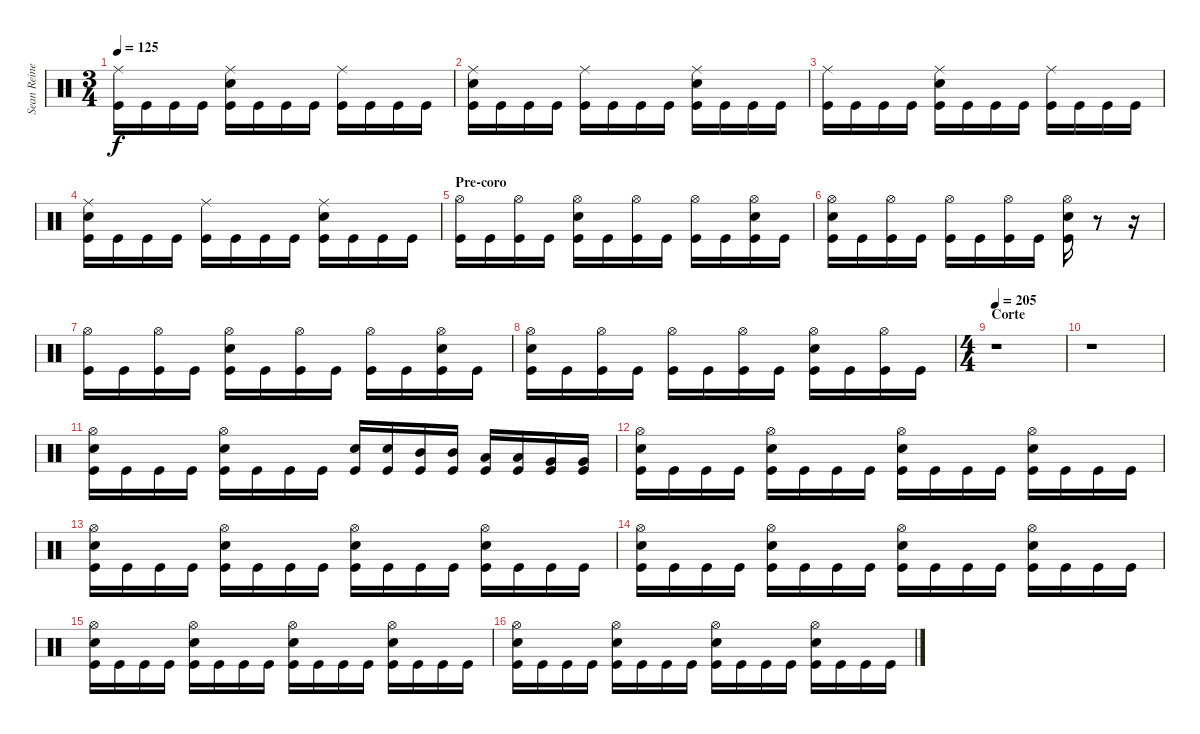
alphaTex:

\track ("Sean Reinert" "Sean Reine") {instrument percussion}
\staff {score}
\articulation defaults
\ts (3 4)
\tempo 125
\clef neutral
\ks c
("Ride (middle)" "Kick (hit)").16{dy f} "Kick (hit)".16 "Kick (hit)".16 "Kick (hit)".16 ("Ride (middle)" "Snare (hit) 2" "Kick (hit)").16 "Kick (hit)".16 "Kick (hit)".16 "Kick (hit)".16 ("Ride (middle)" "Kick (hit)").16 "Kick (hit)".16 "Kick (hit)".16 "Kick (hit)".16 |
("Ride (middle)" "Snare (hit) 2" "Kick (hit)").16 "Kick (hit)".16 "Kick (hit)".16 "Kick (hit)".16 ("Ride (middle)" "Kick (hit)").16 "Kick (hit)".16 "Kick (hit)".16 "Kick (hit)".16 ("Ride (middle)" "Snare (hit) 2" "Kick (hit)").16 "Kick (hit)".16 "Kick (hit)".16 "Kick (hit)".16 |
("Ride (middle)" "Kick (hit)").16 "Kick (hit)".16 "Kick (hit)".16 "Kick (hit)".16 ("Ride (middle)" "Snare (hit) 2" "Kick (hit)").16 "Kick (hit)".16 "Kick (hit)".16 "Kick (hit)".16 ("Ride (middle)" "Kick (hit)").16 "Kick (hit)".16 "Kick (hit)".16 "Kick (hit)".16 |
("Ride (middle)" "Snare (hit) 2" "Kick (hit)").16 "Kick (hit)".16 "Kick (hit)".16 "Kick (hit)".16 ("Ride (middle)" "Kick (hit)").16 "Kick (hit)".16 "Kick (hit)".16 "Kick (hit)".16 ("Ride (middle)" "Snare (hit) 2" "Kick (hit)").16 "Kick (hit)".16 "Kick (hit)".16 "Kick (hit)".16 |
\section ("" "Pre-coro")
("Hi-Hat (open)" "Kick (hit)").16 "Kick (hit)".16 ("Hi-Hat (open)" "Kick (hit)").16 "Kick (hit)".16 ("Hi-Hat (open)" "Snare (hit) 2" "Kick (hit)").16 "Kick (hit)".16 ("Hi-Hat (open)" "Kick (hit)").16 "Kick (hit)".16 ("Hi-Hat (open)" "Kick (hit)").16 "Kick (hit)".16 ("Hi-Hat (open)" "Snare (hit) 2" "Kick (hit)").16 "Kick (hit)".16 |
("Hi-Hat (open)" "Snare (hit) 2" "Kick (hit)").16 "Kick (hit)".16 ("Hi-Hat (open)" "Kick (hit)").16 "Kick (hit)".16 ("Hi-Hat (open)" "Kick (hit)").16 "Kick (hit)".16 ("Hi-Hat (open)" "Kick (hit)").16 "Kick (hit)".16 ("Hi-Hat (open)" "Snare (hit) 2" "Kick (hit)").16 r.8 r.16 |
("Hi-Hat (open)" "Kick (hit)").16 "Kick (hit)".16 ("Hi-Hat (open)" "Kick (hit)").16 "Kick (hit)".16 ("Hi-Hat (open)" "Snare (hit) 2" "Kick (hit)").16 "Kick (hit)".16 ("Hi-Hat (open)" "Kick (hit)").16 "Kick (hit)".16 ("Hi-Hat (open)" "Kick (hit)").16 "Kick (hit)".16 ("Hi-Hat (open)" "Snare (hit) 2" "Kick (hit)").16 "Kick (hit)".16 |
("Hi-Hat (open)" "Snare (hit) 2" "Kick (hit)").16 "Kick (hit)".16 ("Hi-Hat (open)" "Kick (hit)").16 "Kick (hit)".16 ("Hi-Hat (open)" "Kick (hit)").16 "Kick (hit)".16 ("Hi-Hat (open)" "Kick (hit)").16 "Kick (hit)".16 ("Hi-Hat (open)" "Snare (hit) 2" "Kick (hit)").16 "Kick (hit)".16 ("Hi-Hat (open)" "Kick (hit)").16 "Kick (hit)".16 |
\ts (4 4)
\section ("" "Corte")
\tempo 205
r.1 |
r.1 |
("Hi-Hat (open)" "Snare (hit) 2" "Kick (hit)").16 "Kick (hit)".16 "Kick (hit)".16 "Kick (hit)".16 ("Hi-Hat (open)" "Snare (hit) 2" "Kick (hit)").16 "Kick (hit)".16 "Kick (hit)".16 "Kick (hit)".16 ("Snare (hit) 2" "Kick (hit)").16 ("Snare (hit) 2" "Kick (hit)").16 ("Mid Tom (hit)" "Kick (hit)").16 ("Mid Tom (hit)" "Kick (hit)").16 ("Low Tom (hit)" "Kick (hit)").16 ("Low Tom (hit)" "Kick (hit)").16 ("Very Low Tom (hit)" "Kick (hit)").16 ("Very Low Tom (hit)" "Kick (hit)").16 |
("Hi-Hat (open)" "Snare (hit) 2" "Kick (hit)").16 "Kick (hit)".16 "Kick (hit)".16 "Kick (hit)".16 ("Hi-Hat (open)" "Snare (hit) 2" "Kick (hit)").16 "Kick (hit)".16 "Kick (hit)".16 "Kick (hit)".16 ("Hi-Hat (open)" "Snare (hit) 2" "Kick (hit)").16 "Kick (hit)".16 "Kick (hit)".16 "Kick (hit)".16 ("Hi-Hat (open)" "Snare (hit) 2" "Kick (hit)").16 "Kick (hit)".16 "Kick (hit)".16 "Kick (hit)".16 |
("Hi-Hat (open)" "Snare (hit) 2" "Kick (hit)").16 "Kick (hit)".16 "Kick (hit)".16 "Kick (hit)".16 ("Hi-Hat (open)" "Snare (hit) 2" "Kick (hit)").16 "Kick (hit)".16 "Kick (hit)".16 "Kick (hit)".16 ("Hi-Hat (open)" "Snare (hit) 2" "Kick (hit)").16 "Kick (hit)".16 "Kick (hit)".16 "Kick (hit)".16 ("Hi-Hat (open)" "Snare (hit) 2" "Kick (hit)").16 "Kick (hit)".16 "Kick (hit)".16 "Kick (hit)".16 |
("Hi-Hat (open)" "Snare (hit) 2" "Kick (hit)").16 "Kick (hit)".16 "Kick (hit)".16 "Kick (hit)".16 ("Hi-Hat (open)" "Snare (hit) 2" "Kick (hit)").16 "Kick (hit)".16 "Kick (hit)".16 "Kick (hit)".16 ("Hi-Hat (open)" "Snare (hit) 2" "Kick (hit)").16 "Kick (hit)".16 "Kick (hit)".16 "Kick (hit)".16 ("Hi-Hat (open)" "Snare (hit) 2" "Kick (hit)").16 "Kick (hit)".16 "Kick (hit)".16 "Kick (hit)".16 |
("Hi-Hat (open)" "Snare (hit) 2" "Kick (hit)").16 "Kick (hit)".16 "Kick (hit)".16 "Kick (hit)".16 ("Hi-Hat (open)" "Snare (hit) 2" "Kick (hit)").16 "Kick (hit)".16 "Kick (hit)".16 "Kick (hit)".16 ("Hi-Hat (open)" "Snare (hit) 2" "Kick (hit)").16 "Kick (hit)".16 "Kick (hit)".16 "Kick (hit)".16 ("Hi-Hat (open)" "Snare (hit) 2" "Kick (hit)").16 "Kick (hit)".16 "Kick (hit)".16 "Kick (hit)".16 |
("Hi-Hat (open)" "Snare (hit) 2" "Kick (hit)").16 "Kick (hit)".16 "Kick (hit)".16 "Kick (hit)".16 ("Hi-Hat (open)" "Snare (hit) 2" "Kick (hit)").16 "Kick (hit)".16 "Kick (hit)".16 "Kick (hit)".16 ("Hi-Hat (open)" "Snare (hit) 2" "Kick (hit)").16 "Kick (hit)".16 "Kick (hit)".16 "Kick (hit)".16 ("Hi-Hat (open)" "Snare (hit) 2" "Kick (hit)").16 "Kick (hit)".16 "Kick (hit)".16 "Kick (hit)".16
